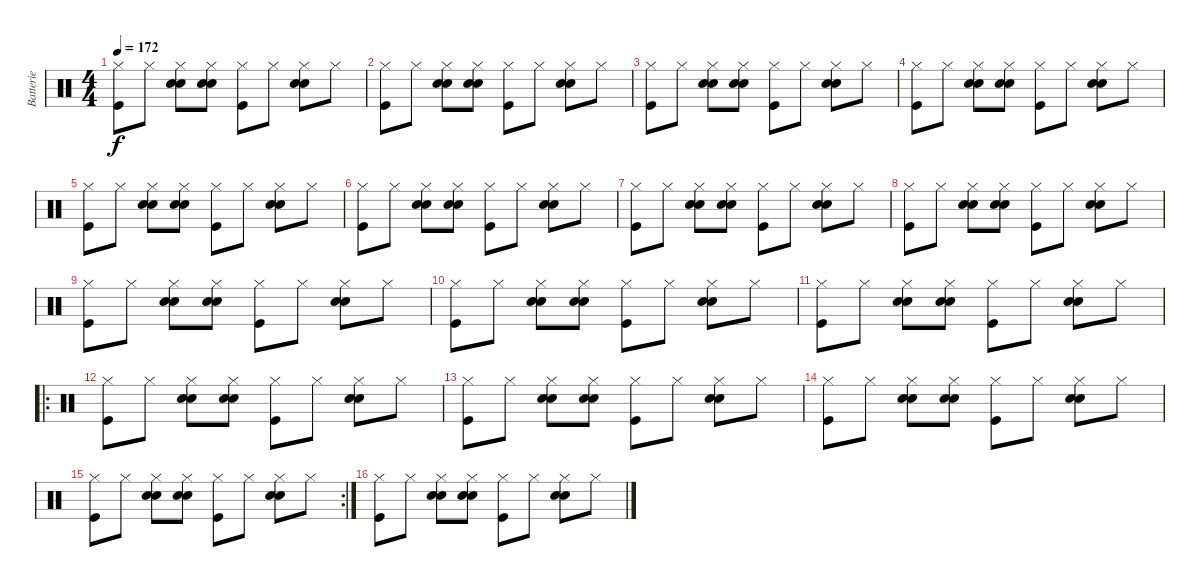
\track ("Batterie" "Batterie") {instrument percussion}
\staff {score}
\articulation defaults
\ts (4 4)
\tempo 172
\clef neutral
\ks c
("Hi-Hat (closed)" "Kick (hit)").8{dy f} "Hi-Hat (closed)".8 ("Electric Snare (hit)" "Hi-Hat (closed)" "Snare (hit) 2").8 ("Electric Snare (hit)" "Hi-Hat (closed)" "Snare (hit) 2").8 ("Hi-Hat (closed)" "Kick (hit)").8 "Hi-Hat (closed)".8 ("Electric Snare (hit)" "Hi-Hat (closed)" "Snare (hit) 2").8 "Hi-Hat (closed)".8 |
("Hi-Hat (closed)" "Kick (hit)").8 "Hi-Hat (closed)".8 ("Electric Snare (hit)" "Hi-Hat (closed)" "Snare (hit) 2").8 ("Electric Snare (hit)" "Hi-Hat (closed)" "Snare (hit) 2").8 ("Hi-Hat (closed)" "Kick (hit)").8 "Hi-Hat (closed)".8 ("Electric Snare (hit)" "Hi-Hat (closed)" "Snare (hit) 2").8 "Hi-Hat (closed)".8 |
("Hi-Hat (closed)" "Kick (hit)").8 "Hi-Hat (closed)".8 ("Electric Snare (hit)" "Hi-Hat (closed)" "Snare (hit) 2").8 ("Electric Snare (hit)" "Hi-Hat (closed)" "Snare (hit) 2").8 ("Hi-Hat (closed)" "Kick (hit)").8 "Hi-Hat (closed)".8 ("Electric Snare (hit)" "Hi-Hat (closed)" "Snare (hit) 2").8 "Hi-Hat (closed)".8 |
("Hi-Hat (closed)" "Kick (hit)").8 "Hi-Hat (closed)".8 ("Electric Snare (hit)" "Hi-Hat (closed)" "Snare (hit) 2").8 ("Electric Snare (hit)" "Hi-Hat (closed)" "Snare (hit) 2").8 ("Hi-Hat (closed)" "Kick (hit)").8 "Hi-Hat (closed)".8 ("Electric Snare (hit)" "Hi-Hat (closed)" "Snare (hit) 2").8 "Hi-Hat (closed)".8 |
("Hi-Hat (closed)" "Kick (hit)").8 "Hi-Hat (closed)".8 ("Electric Snare (hit)" "Hi-Hat (closed)" "Snare (hit) 2").8 ("Electric Snare (hit)" "Hi-Hat (closed)" "Snare (hit) 2").8 ("Hi-Hat (closed)" "Kick (hit)").8 "Hi-Hat (closed)".8 ("Electric Snare (hit)" "Hi-Hat (closed)" "Snare (hit) 2").8 "Hi-Hat (closed)".8 |
("Hi-Hat (closed)" "Kick (hit)").8 "Hi-Hat (closed)".8 ("Electric Snare (hit)" "Hi-Hat (closed)" "Snare (hit) 2").8 ("Electric Snare (hit)" "Hi-Hat (closed)" "Snare (hit) 2").8 ("Hi-Hat (closed)" "Kick (hit)").8 "Hi-Hat (closed)".8 ("Electric Snare (hit)" "Hi-Hat (closed)" "Snare (hit) 2").8 "Hi-Hat (closed)".8 |
("Hi-Hat (closed)" "Kick (hit)").8 "Hi-Hat (closed)".8 ("Electric Snare (hit)" "Hi-Hat (closed)" "Snare (hit) 2").8 ("Electric Snare (hit)" "Hi-Hat (closed)" "Snare (hit) 2").8 ("Hi-Hat (closed)" "Kick (hit)").8 "Hi-Hat (closed)".8 ("Electric Snare (hit)" "Hi-Hat (closed)" "Snare (hit) 2").8 "Hi-Hat (closed)".8 |
("Hi-Hat (closed)" "Kick (hit)").8 "Hi-Hat (closed)".8 ("Electric Snare (hit)" "Hi-Hat (closed)" "Snare (hit) 2").8 ("Electric Snare (hit)" "Hi-Hat (closed)" "Snare (hit) 2").8 ("Hi-Hat (closed)" "Kick (hit)").8 "Hi-Hat (closed)".8 ("Electric Snare (hit)" "Hi-Hat (closed)" "Snare (hit) 2").8 "Hi-Hat (closed)".8 |
("Hi-Hat (closed)" "Kick (hit)").8 "Hi-Hat (closed)".8 ("Electric Snare (hit)" "Hi-Hat (closed)" "Snare (hit) 2").8 ("Electric Snare (hit)" "Hi-Hat (closed)" "Snare (hit) 2").8 ("Hi-Hat (closed)" "Kick (hit)").8 "Hi-Hat (closed)".8 ("Electric Snare (hit)" "Hi-Hat (closed)" "Snare (hit) 2").8 "Hi-Hat (closed)".8 |
("Hi-Hat (closed)" "Kick (hit)").8 "Hi-Hat (closed)".8 ("Electric Snare (hit)" "Hi-Hat (closed)" "Snare (hit) 2").8 ("Electric Snare (hit)" "Hi-Hat (closed)" "Snare (hit) 2").8 ("Hi-Hat (closed)" "Kick (hit)").8 "Hi-Hat (closed)".8 ("Electric Snare (hit)" "Hi-Hat (closed)" "Snare (hit) 2").8 "Hi-Hat (closed)".8 |
("Hi-Hat (closed)" "Kick (hit)").8 "Hi-Hat (closed)".8 ("Electric Snare (hit)" "Hi-Hat (closed)" "Snare (hit) 2").8 ("Electric Snare (hit)" "Hi-Hat (closed)" "Snare (hit) 2").8 ("Hi-Hat (closed)" "Kick (hit)").8 "Hi-Hat (closed)".8 ("Electric Snare (hit)" "Hi-Hat (closed)" "Snare (hit) 2").8 "Hi-Hat (closed)".8 |
\ro
("Hi-Hat (closed)" "Kick (hit)").8 "Hi-Hat (closed)".8 ("Electric Snare (hit)" "Hi-Hat (closed)" "Snare (hit) 2").8 ("Electric Snare (hit)" "Hi-Hat (closed)" "Snare (hit) 2").8 ("Hi-Hat (closed)" "Kick (hit)").8 "Hi-Hat (closed)".8 ("Electric Snare (hit)" "Hi-Hat (closed)" "Snare (hit) 2").8 "Hi-Hat (closed)".8 |
("Hi-Hat (closed)" "Kick (hit)").8 "Hi-Hat (closed)".8 ("Electric Snare (hit)" "Hi-Hat (closed)" "Snare (hit) 2").8 ("Electric Snare (hit)" "Hi-Hat (closed)" "Snare (hit) 2").8 ("Hi-Hat (closed)" "Kick (hit)").8 "Hi-Hat (closed)".8 ("Electric Snare (hit)" "Hi-Hat (closed)" "Snare (hit) 2").8 "Hi-Hat (closed)".8 |
("Hi-Hat (closed)" "Kick (hit)").8 "Hi-Hat (closed)".8 ("Electric Snare (hit)" "Hi-Hat (closed)" "Snare (hit) 2").8 ("Electric Snare (hit)" "Hi-Hat (closed)" "Snare (hit) 2").8 ("Hi-Hat (closed)" "Kick (hit)").8 "Hi-Hat (closed)".8 ("Electric Snare (hit)" "Hi-Hat (closed)" "Snare (hit) 2").8 "Hi-Hat (closed)".8 |
\rc 2
("Hi-Hat (closed)" "Kick (hit)").8 "Hi-Hat (closed)".8 ("Electric Snare (hit)" "Hi-Hat (closed)" "Snare (hit) 2").8 ("Electric Snare (hit)" "Hi-Hat (closed)" "Snare (hit) 2").8 ("Hi-Hat (closed)" "Kick (hit)").8 "Hi-Hat (closed)".8 ("Electric Snare (hit)" "Hi-Hat (closed)" "Snare (hit) 2").8 "Hi-Hat (closed)".8 |
("Hi-Hat (closed)" "Kick (hit)").8 "Hi-Hat (closed)".8 ("Electric Snare (hit)" "Hi-Hat (closed)" "Snare (hit) 2").8 ("Electric Snare (hit)" "Hi-Hat (closed)" "Snare (hit) 2").8 ("Hi-Hat (closed)" "Kick (hit)").8 "Hi-Hat (closed)".8 ("Electric Snare (hit)" "Hi-Hat (closed)" "Snare (hit) 2").8 "Hi-Hat (closed)".8
